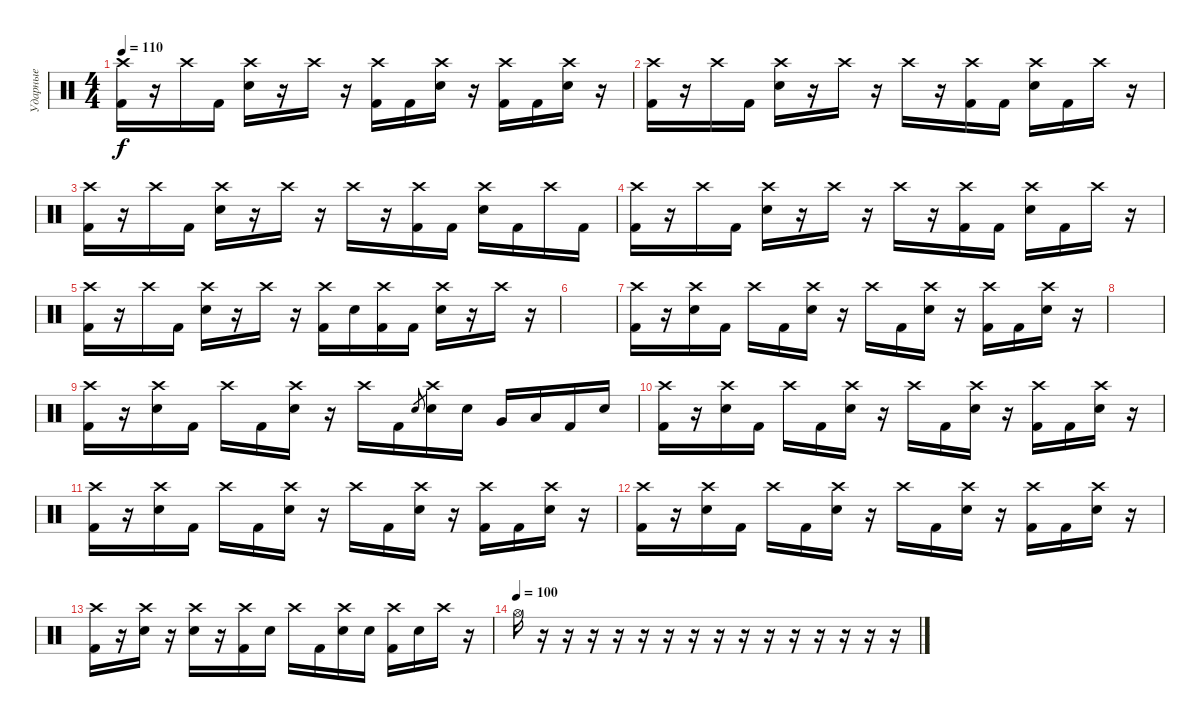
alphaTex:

\track ("Ударные" "Ударные") {instrument percussion}
\staff {score}
\articulation defaults
\ts (4 4)
\tempo 110
\clef neutral
\ks c
("Crash high (hit)" "Kick (hit) 2").16{dy f} r.16 "Crash high (hit)".16 "Kick (hit) 2".16 ("Crash high (hit)" "Electric Snare (hit)").16 r.16 "Crash high (hit)".16 r.16 ("Crash high (hit)" "Kick (hit) 2").16 "Kick (hit) 2".16 ("Crash high (hit)" "Electric Snare (hit)").16 r.16 ("Crash high (hit)" "Kick (hit) 2").16 "Kick (hit) 2".16 ("Crash high (hit)" "Electric Snare (hit)").16 r.16 |
("Crash high (hit)" "Kick (hit) 2").16 r.16 "Crash high (hit)".16 "Kick (hit) 2".16 ("Crash high (hit)" "Electric Snare (hit)").16 r.16 "Crash high (hit)".16 r.16 "Crash high (hit)".16 r.16 ("Crash high (hit)" "Kick (hit) 2").16 "Kick (hit) 2".16 ("Crash high (hit)" "Electric Snare (hit)").16 "Kick (hit) 2".16 "Crash high (hit)".16 r.16 |
("Crash high (hit)" "Kick (hit) 2").16 r.16 "Crash high (hit)".16 "Kick (hit) 2".16 ("Crash high (hit)" "Electric Snare (hit)").16 r.16 "Crash high (hit)".16 r.16 "Crash high (hit)".16 r.16 ("Crash high (hit)" "Kick (hit) 2").16 "Kick (hit) 2".16 ("Crash high (hit)" "Electric Snare (hit)").16 "Kick (hit) 2".16 "Crash high (hit)".16 "Kick (hit) 2".16 |
("Crash high (hit)" "Kick (hit) 2").16 r.16 "Crash high (hit)".16 "Kick (hit) 2".16 ("Crash high (hit)" "Electric Snare (hit)").16 r.16 "Crash high (hit)".16 r.16 "Crash high (hit)".16 r.16 ("Crash high (hit)" "Kick (hit) 2").16 "Kick (hit) 2".16 ("Crash high (hit)" "Electric Snare (hit)").16 "Kick (hit) 2".16 "Crash high (hit)".16 r.16 |
("Crash high (hit)" "Kick (hit) 2").16 r.16 "Crash high (hit)".16 "Kick (hit) 2".16 ("Crash high (hit)" "Electric Snare (hit)").16 r.16 "Crash high (hit)".16 r.16 ("Crash high (hit)" "Kick (hit) 2").16 "Electric Snare (hit)".16 ("Crash high (hit)" "Kick (hit) 2").16 "Kick (hit) 2".16 ("Crash high (hit)" "Electric Snare (hit)").16 r.16 "Crash high (hit)".16 r.16 |
|
("Crash high (hit)" "Kick (hit) 2").16 r.16 ("Crash high (hit)" "Electric Snare (hit)").16 "Kick (hit) 2".16 "Crash high (hit)".16 "Kick (hit) 2".16 ("Crash high (hit)" "Electric Snare (hit)").16 r.16 "Crash high (hit)".16 "Kick (hit) 2".16 ("Crash high (hit)" "Electric Snare (hit)").16 r.16 ("Crash high (hit)" "Kick (hit) 2").16 "Kick (hit) 2".16 ("Crash high (hit)" "Electric Snare (hit)").16 r.16 |
|
("Crash high (hit)" "Kick (hit) 2").16 r.16 ("Crash high (hit)" "Electric Snare (hit)").16 "Kick (hit) 2".16 "Crash high (hit)".16 "Kick (hit) 2".16 ("Crash high (hit)" "Electric Snare (hit)").16 r.16 "Crash high (hit)".16 "Kick (hit) 2".16 "Electric Snare (hit)".8{gr} ("Crash high (hit)" "Electric Snare (hit)").16 "Electric Snare (hit)".16 "Very Low Tom (hit)".16 "Low Floor Tom (hit)".16 "Kick (hit) 2".16 "Electric Snare (hit)".16 |
("Crash high (hit)" "Kick (hit) 2").16 r.16 ("Crash high (hit)" "Electric Snare (hit)").16 "Kick (hit) 2".16 "Crash high (hit)".16 "Kick (hit) 2".16 ("Crash high (hit)" "Electric Snare (hit)").16 r.16 "Crash high (hit)".16 "Kick (hit) 2".16 ("Crash high (hit)" "Electric Snare (hit)").16 r.16 ("Crash high (hit)" "Kick (hit) 2").16 "Kick (hit) 2".16 ("Crash high (hit)" "Electric Snare (hit)").16 r.16 |
("Crash high (hit)" "Kick (hit) 2").16 r.16 ("Crash high (hit)" "Electric Snare (hit)").16 "Kick (hit) 2".16 "Crash high (hit)".16 "Kick (hit) 2".16 ("Crash high (hit)" "Electric Snare (hit)").16 r.16 "Crash high (hit)".16 "Kick (hit) 2".16 ("Crash high (hit)" "Electric Snare (hit)").16 r.16 ("Crash high (hit)" "Kick (hit) 2").16 "Kick (hit) 2".16 ("Crash high (hit)" "Electric Snare (hit)").16 r.16 |
("Crash high (hit)" "Kick (hit) 2").16 r.16 ("Crash high (hit)" "Electric Snare (hit)").16 "Kick (hit) 2".16 "Crash high (hit)".16 "Kick (hit) 2".16 ("Crash high (hit)" "Electric Snare (hit)").16 r.16 "Crash high (hit)".16 "Kick (hit) 2".16 ("Crash high (hit)" "Electric Snare (hit)").16 r.16 ("Crash high (hit)" "Kick (hit) 2").16 "Kick (hit) 2".16 ("Crash high (hit)" "Electric Snare (hit)").16 r.16 |
("Crash high (hit)" "Kick (hit) 2").16 r.16 ("Crash high (hit)" "Electric Snare (hit)").16 r.16 ("Crash high (hit)" "Electric Snare (hit)").16 r.16 ("Crash high (hit)" "Kick (hit) 2").16 "Electric Snare (hit)".16 "Crash high (hit)".16 "Kick (hit) 2".16 ("Crash high (hit)" "Electric Snare (hit)").16 "Electric Snare (hit)".16 ("Crash high (hit)" "Kick (hit) 2").16 "Electric Snare (hit)".16 "Crash high (hit)".16 r.16 |
\tempo (100)
"Hi-Hat (open)".16 r.16 r.16 r.16 r.16 r.16 r.16 r.16 r.16 r.16 r.16 r.16 r.16 r.16 r.16 r.16
